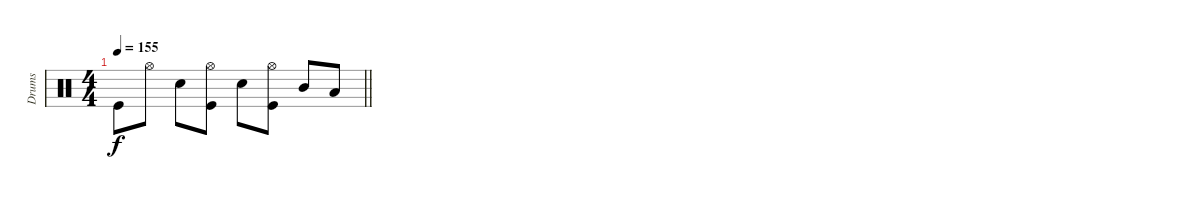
\track ("Drums" "Drums") {instrument percussion}
\staff
\articulation defaults
\ts (4 4)
\tempo 155
\clef neutral
\barLineRight lightlight
\ks c "Kick (hit)".8{dy f} "Hi-Hat (open)".8 "Electric Snare (hit)".8
("Hi-Hat (open)" "Kick (hit)").8 "Electric Snare (hit)".8 ("Hi-Hat (open)" "Kick (hit)").8 "Mid Tom (hit)".8 "Low Tom (hit)".8
